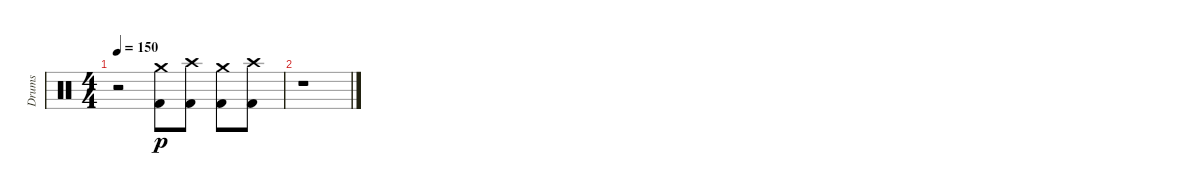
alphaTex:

\track ("Drums" "Drums") {instrument percussion}
\staff {score}
\articulation defaults
\ts (4 4)
\tempo 150
\clef neutral
\ks c
r.2{dy p} ("Kick (hit) 2" "Crash medium (hit)").8 ("Kick (hit) 2" "Crash high (hit)").8 ("Kick (hit) 2" "Crash medium (hit)").8 ("Kick (hit) 2" "Crash high (hit)").8 |
r.1
